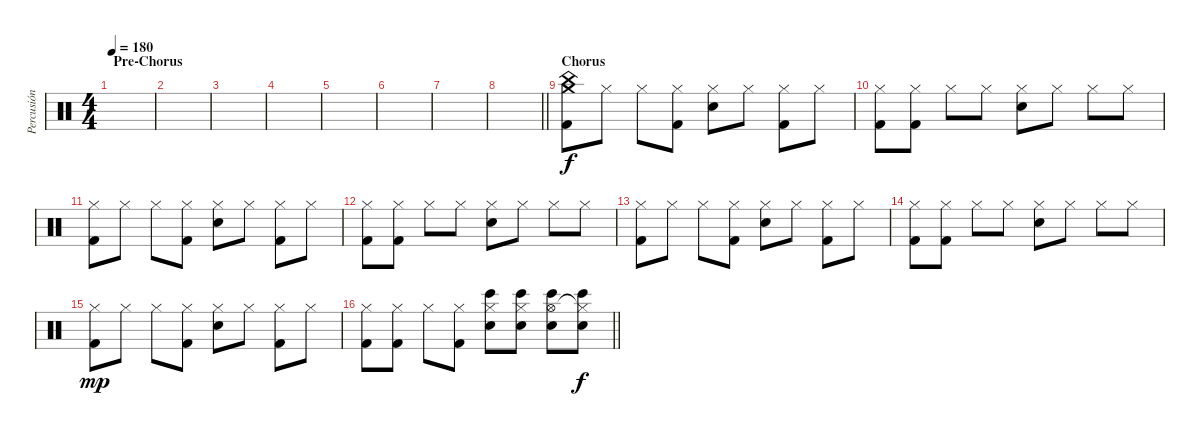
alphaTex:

\track ("Percusión" "Percusión") {instrument percussion}
\staff {score}
\articulation defaults
\ts (4 4)
\section ("" "Pre-Chorus")
\tempo 180
\clef neutral
\ks c
|
|
|
|
|
|
|
\barLineRight lightlight
|
\section ("" "Chorus")
("Crash medium (hit)" "China (hit)" "Kick (hit) 2").8 "Hi-Hat (closed)".8 "Hi-Hat (closed)".8 ("Hi-Hat (closed)" "Kick (hit) 2").8 ("Hi-Hat (closed)" "Snare (hit) 2").8 "Hi-Hat (closed)".8 ("Hi-Hat (closed)" "Kick (hit) 2").8 "Hi-Hat (closed)".8 |
("Hi-Hat (closed)" "Kick (hit) 2").8 ("Hi-Hat (closed)" "Kick (hit) 2").8 "Hi-Hat (closed)".8 "Hi-Hat (closed)".8 ("Hi-Hat (closed)" "Snare (hit) 2").8 "Hi-Hat (closed)".8 "Hi-Hat (closed)".8 "Hi-Hat (closed)".8 |
("Hi-Hat (closed)" "Kick (hit) 2").8 "Hi-Hat (closed)".8 "Hi-Hat (closed)".8 ("Hi-Hat (closed)" "Kick (hit) 2").8 ("Hi-Hat (closed)" "Snare (hit) 2").8 "Hi-Hat (closed)".8 ("Hi-Hat (closed)" "Kick (hit) 2").8 "Hi-Hat (closed)".8 |
("Hi-Hat (closed)" "Kick (hit) 2").8 ("Hi-Hat (closed)" "Kick (hit) 2").8 "Hi-Hat (closed)".8 "Hi-Hat (closed)".8 ("Hi-Hat (closed)" "Snare (hit) 2").8 "Hi-Hat (closed)".8 "Hi-Hat (closed)".8 "Hi-Hat (closed)".8 |
("Hi-Hat (closed)" "Kick (hit) 2").8 "Hi-Hat (closed)".8 "Hi-Hat (closed)".8 ("Hi-Hat (closed)" "Kick (hit) 2").8 ("Hi-Hat (closed)" "Snare (hit) 2").8 "Hi-Hat (closed)".8 ("Hi-Hat (closed)" "Kick (hit) 2").8 "Hi-Hat (closed)".8 |
("Hi-Hat (closed)" "Kick (hit) 2").8 ("Hi-Hat (closed)" "Kick (hit) 2").8 "Hi-Hat (closed)".8 "Hi-Hat (closed)".8 ("Hi-Hat (closed)" "Snare (hit) 2").8 "Hi-Hat (closed)".8 "Hi-Hat (closed)".8 "Hi-Hat (closed)".8 |
("Hi-Hat (closed)" "Kick (hit) 2").8{dy mp} "Hi-Hat (closed)".8 "Hi-Hat (closed)".8 ("Hi-Hat (closed)" "Kick (hit) 2").8 ("Hi-Hat (closed)" "Snare (hit) 2").8 "Hi-Hat (closed)".8 ("Hi-Hat (closed)" "Kick (hit) 2").8 "Hi-Hat (closed)".8 |
\barLineRight lightlight
("Hi-Hat (closed)" "Kick (hit) 2").8 ("Hi-Hat (closed)" "Kick (hit) 2").8 "Hi-Hat (closed)".8 ("Hi-Hat (closed)" "Kick (hit) 2").8 ("Hi-Hat (closed)" "Bongo High (hit)" "Snare (hit) 2").8 ("Hi-Hat (closed)" "Bongo High (hit)" "Snare (hit) 2").8 ("Hi-Hat (open)" "Bongo High (hit)" "Snare (hit) 2").8 ("Hi-Hat (closed)"{t} "Bongo High (hit)" "Snare (hit) 2").8{dy f}
